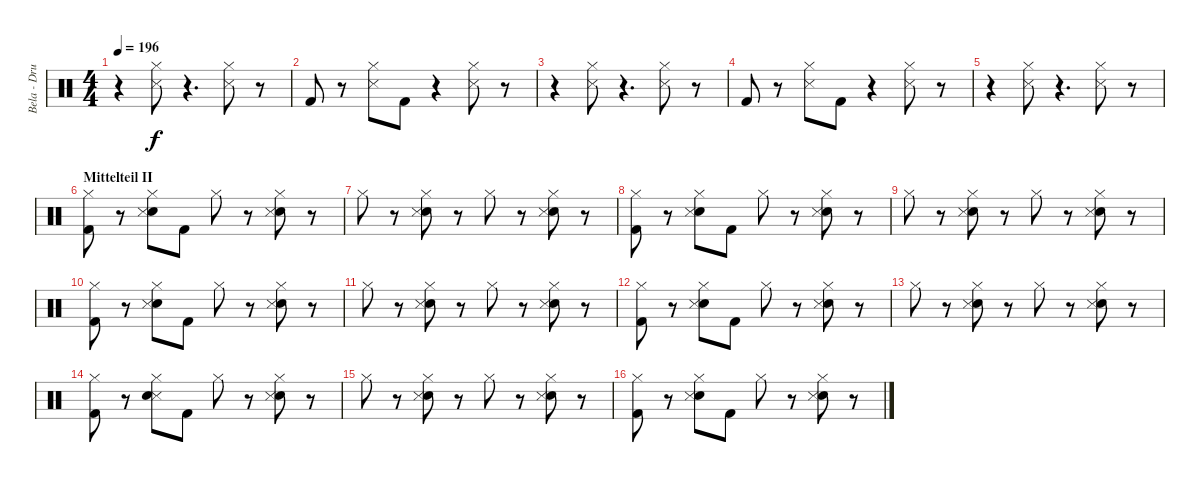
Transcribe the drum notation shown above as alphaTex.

\track ("Bela - Drums" "Bela - Dru") {instrument percussion}
\staff {score}
\articulation defaults
\ts (4 4)
\tempo 196
\clef neutral
\ks c
r.4{dy f} ("Hi-Hat (closed)" "Snare (side stick) 3").8 r.4{d} ("Hi-Hat (closed)" "Snare (side stick) 3").8 r.8 |
"Kick (hit) 2".8 r.8 ("Hi-Hat (closed)" "Snare (side stick) 3").8 "Kick (hit) 2".8 r.4 ("Hi-Hat (closed)" "Snare (side stick) 3").8 r.8 |
r.4 ("Hi-Hat (closed)" "Snare (side stick) 3").8 r.4{d} ("Hi-Hat (closed)" "Snare (side stick) 3").8 r.8 |
"Kick (hit) 2".8 r.8 ("Hi-Hat (closed)" "Snare (side stick) 3").8 "Kick (hit) 2".8 r.4 ("Hi-Hat (closed)" "Snare (side stick) 3").8 r.8 |
r.4 ("Hi-Hat (closed)" "Snare (side stick) 3").8 r.4{d} ("Hi-Hat (closed)" "Snare (side stick) 3").8 r.8 |
\section ("" "Mittelteil II")
("Hi-Hat (closed)" "Kick (hit) 2").8 r.8 ("Electric Snare (hit)" "Hi-Hat (closed)" "Snare (side stick) 3").8 "Kick (hit) 2".8 "Hi-Hat (closed)".8 r.8 ("Electric Snare (hit)" "Hi-Hat (closed)" "Snare (side stick) 3").8 r.8 |
"Hi-Hat (closed)".8 r.8 ("Electric Snare (hit)" "Hi-Hat (closed)" "Snare (side stick) 3").8 r.8 "Hi-Hat (closed)".8 r.8 ("Electric Snare (hit)" "Hi-Hat (closed)" "Snare (side stick) 3").8 r.8 |
("Hi-Hat (closed)" "Kick (hit) 2").8 r.8 ("Electric Snare (hit)" "Hi-Hat (closed)" "Snare (side stick) 3").8 "Kick (hit) 2".8 "Hi-Hat (closed)".8 r.8 ("Electric Snare (hit)" "Hi-Hat (closed)" "Snare (side stick) 3").8 r.8 |
"Hi-Hat (closed)".8 r.8 ("Electric Snare (hit)" "Hi-Hat (closed)" "Snare (side stick) 3").8 r.8 "Hi-Hat (closed)".8 r.8 ("Electric Snare (hit)" "Hi-Hat (closed)" "Snare (side stick) 3").8 r.8 |
("Hi-Hat (closed)" "Kick (hit) 2").8 r.8 ("Electric Snare (hit)" "Hi-Hat (closed)" "Snare (side stick) 3").8 "Kick (hit) 2".8 "Hi-Hat (closed)".8 r.8 ("Electric Snare (hit)" "Hi-Hat (closed)" "Snare (side stick) 3").8 r.8 |
"Hi-Hat (closed)".8 r.8 ("Electric Snare (hit)" "Hi-Hat (closed)" "Snare (side stick) 3").8 r.8 "Hi-Hat (closed)".8 r.8 ("Electric Snare (hit)" "Hi-Hat (closed)" "Snare (side stick) 3").8 r.8 |
("Hi-Hat (closed)" "Kick (hit) 2").8 r.8 ("Electric Snare (hit)" "Hi-Hat (closed)" "Snare (side stick) 3").8 "Kick (hit) 2".8 "Hi-Hat (closed)".8 r.8 ("Electric Snare (hit)" "Hi-Hat (closed)" "Snare (side stick) 3").8 r.8 |
"Hi-Hat (closed)".8 r.8 ("Electric Snare (hit)" "Hi-Hat (closed)" "Snare (side stick) 3").8 r.8 "Hi-Hat (closed)".8 r.8 ("Electric Snare (hit)" "Hi-Hat (closed)" "Snare (side stick) 3").8 r.8 |
("Hi-Hat (closed)" "Kick (hit) 2").8 r.8 ("Hi-Hat (closed)" "Snare (side stick) 3" "Electric Snare (hit)").8 "Kick (hit) 2".8 "Hi-Hat (closed)".8 r.8 ("Electric Snare (hit)" "Hi-Hat (closed)" "Snare (side stick) 3").8 r.8 |
"Hi-Hat (closed)".8 r.8 ("Electric Snare (hit)" "Hi-Hat (closed)" "Snare (side stick) 3").8 r.8 "Hi-Hat (closed)".8 r.8 ("Electric Snare (hit)" "Hi-Hat (closed)" "Snare (side stick) 3").8 r.8 |
("Hi-Hat (closed)" "Kick (hit) 2").8 r.8 ("Electric Snare (hit)" "Hi-Hat (closed)" "Snare (side stick) 3").8 "Kick (hit) 2".8 "Hi-Hat (closed)".8 r.8 ("Electric Snare (hit)" "Hi-Hat (closed)" "Snare (side stick) 3").8 r.8
